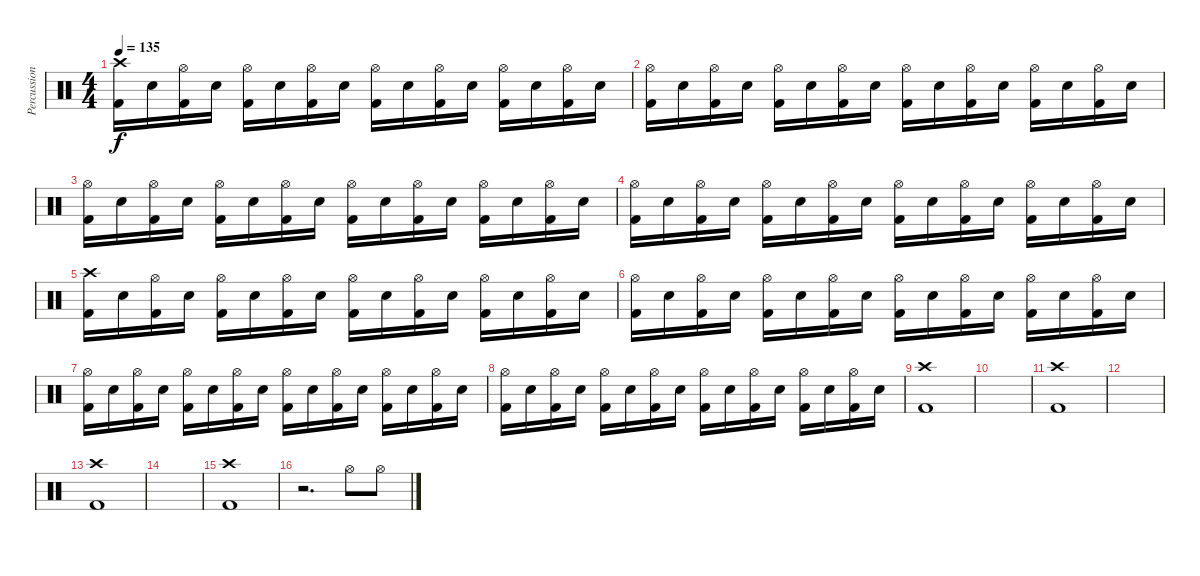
\track ("Percussions" "Percussion") {instrument percussion}
\staff {score}
\articulation defaults
\ts (4 4)
\tempo 135
\clef neutral
\ks c
("Crash high (hit)" "Kick (hit) 2").16{dy f} "Electric Snare (hit)".16 ("Hi-Hat (open)" "Kick (hit) 2").16 "Electric Snare (hit)".16 ("Hi-Hat (open)" "Kick (hit) 2").16 "Electric Snare (hit)".16 ("Hi-Hat (open)" "Kick (hit) 2").16 "Electric Snare (hit)".16 ("Hi-Hat (open)" "Kick (hit) 2").16 "Electric Snare (hit)".16 ("Hi-Hat (open)" "Kick (hit) 2").16 "Electric Snare (hit)".16 ("Hi-Hat (open)" "Kick (hit) 2").16 "Electric Snare (hit)".16 ("Hi-Hat (open)" "Kick (hit) 2").16 "Electric Snare (hit)".16 |
("Hi-Hat (open)" "Kick (hit) 2").16 "Electric Snare (hit)".16 ("Hi-Hat (open)" "Kick (hit) 2").16 "Electric Snare (hit)".16 ("Hi-Hat (open)" "Kick (hit) 2").16 "Electric Snare (hit)".16 ("Hi-Hat (open)" "Kick (hit) 2").16 "Electric Snare (hit)".16 ("Hi-Hat (open)" "Kick (hit) 2").16 "Electric Snare (hit)".16 ("Hi-Hat (open)" "Kick (hit) 2").16 "Electric Snare (hit)".16 ("Hi-Hat (open)" "Kick (hit) 2").16 "Electric Snare (hit)".16 ("Hi-Hat (open)" "Kick (hit) 2").16 "Electric Snare (hit)".16 |
("Hi-Hat (open)" "Kick (hit) 2").16 "Electric Snare (hit)".16 ("Hi-Hat (open)" "Kick (hit) 2").16 "Electric Snare (hit)".16 ("Hi-Hat (open)" "Kick (hit) 2").16 "Electric Snare (hit)".16 ("Hi-Hat (open)" "Kick (hit) 2").16 "Electric Snare (hit)".16 ("Hi-Hat (open)" "Kick (hit) 2").16 "Electric Snare (hit)".16 ("Hi-Hat (open)" "Kick (hit) 2").16 "Electric Snare (hit)".16 ("Hi-Hat (open)" "Kick (hit) 2").16 "Electric Snare (hit)".16 ("Hi-Hat (open)" "Kick (hit) 2").16 "Electric Snare (hit)".16 |
("Hi-Hat (open)" "Kick (hit) 2").16 "Electric Snare (hit)".16 ("Hi-Hat (open)" "Kick (hit) 2").16 "Electric Snare (hit)".16 ("Hi-Hat (open)" "Kick (hit) 2").16 "Electric Snare (hit)".16 ("Hi-Hat (open)" "Kick (hit) 2").16 "Electric Snare (hit)".16 ("Hi-Hat (open)" "Kick (hit) 2").16 "Electric Snare (hit)".16 ("Hi-Hat (open)" "Kick (hit) 2").16 "Electric Snare (hit)".16 ("Hi-Hat (open)" "Kick (hit) 2").16 "Electric Snare (hit)".16 ("Hi-Hat (open)" "Kick (hit) 2").16 "Electric Snare (hit)".16 |
("Crash high (hit)" "Kick (hit) 2").16 "Electric Snare (hit)".16 ("Hi-Hat (open)" "Kick (hit) 2").16 "Electric Snare (hit)".16 ("Hi-Hat (open)" "Kick (hit) 2").16 "Electric Snare (hit)".16 ("Hi-Hat (open)" "Kick (hit) 2").16 "Electric Snare (hit)".16 ("Hi-Hat (open)" "Kick (hit) 2").16 "Electric Snare (hit)".16 ("Hi-Hat (open)" "Kick (hit) 2").16 "Electric Snare (hit)".16 ("Hi-Hat (open)" "Kick (hit) 2").16 "Electric Snare (hit)".16 ("Hi-Hat (open)" "Kick (hit) 2").16 "Electric Snare (hit)".16 |
("Hi-Hat (open)" "Kick (hit) 2").16 "Electric Snare (hit)".16 ("Hi-Hat (open)" "Kick (hit) 2").16 "Electric Snare (hit)".16 ("Hi-Hat (open)" "Kick (hit) 2").16 "Electric Snare (hit)".16 ("Hi-Hat (open)" "Kick (hit) 2").16 "Electric Snare (hit)".16 ("Hi-Hat (open)" "Kick (hit) 2").16 "Electric Snare (hit)".16 ("Hi-Hat (open)" "Kick (hit) 2").16 "Electric Snare (hit)".16 ("Hi-Hat (open)" "Kick (hit) 2").16 "Electric Snare (hit)".16 ("Hi-Hat (open)" "Kick (hit) 2").16 "Electric Snare (hit)".16 |
("Hi-Hat (open)" "Kick (hit) 2").16 "Electric Snare (hit)".16 ("Hi-Hat (open)" "Kick (hit) 2").16 "Electric Snare (hit)".16 ("Hi-Hat (open)" "Kick (hit) 2").16 "Electric Snare (hit)".16 ("Hi-Hat (open)" "Kick (hit) 2").16 "Electric Snare (hit)".16 ("Hi-Hat (open)" "Kick (hit) 2").16 "Electric Snare (hit)".16 ("Hi-Hat (open)" "Kick (hit) 2").16 "Electric Snare (hit)".16 ("Hi-Hat (open)" "Kick (hit) 2").16 "Electric Snare (hit)".16 ("Hi-Hat (open)" "Kick (hit) 2").16 "Electric Snare (hit)".16 |
("Hi-Hat (open)" "Kick (hit) 2").16 "Electric Snare (hit)".16 ("Hi-Hat (open)" "Kick (hit) 2").16 "Electric Snare (hit)".16 ("Hi-Hat (open)" "Kick (hit) 2").16 "Electric Snare (hit)".16 ("Hi-Hat (open)" "Kick (hit) 2").16 "Electric Snare (hit)".16 ("Hi-Hat (open)" "Kick (hit) 2").16 "Electric Snare (hit)".16 ("Hi-Hat (open)" "Kick (hit) 2").16 "Electric Snare (hit)".16 ("Hi-Hat (open)" "Kick (hit) 2").16 "Electric Snare (hit)".16 ("Hi-Hat (open)" "Kick (hit) 2").16 "Electric Snare (hit)".16 |
("Crash high (hit)" "Kick (hit) 2").1 |
|
("Crash high (hit)" "Kick (hit) 2").1 |
|
("Crash high (hit)" "Kick (hit) 2").1 |
|
("Crash high (hit)" "Kick (hit) 2").1 |
r.2{d} "Hi-Hat (open)".8 "Hi-Hat (open)".8
